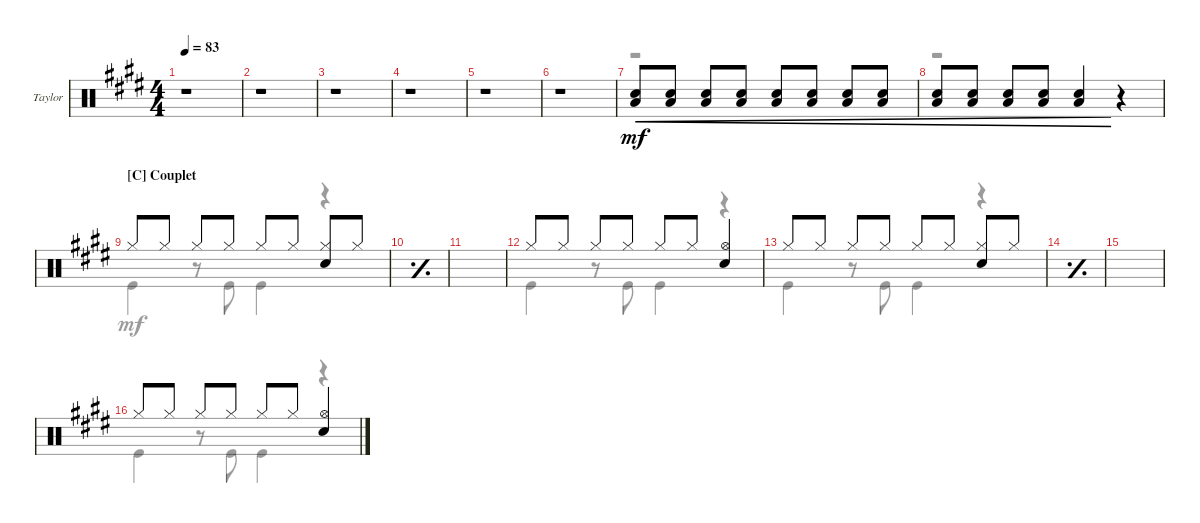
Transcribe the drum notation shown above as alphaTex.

\defaultSystemsLayout 4
\bracketExtendMode groupsimilarinstruments
\firstSystemTrackNameOrientation horizontal
\otherSystemsTrackNameOrientation horizontal
\track ("Drums - Taylor Hawkins" "Taylor") {instrument percussion}
\staff {score}
\articulation defaults
\voice
\ts (4 4)
\tempo 83
\clef neutral
\ks e
r.1{dy mf} |
r.1 |
r.1 |
r.1 |
r.1 |
r.1 |
("Low Tom (hit)" "Snare (hit) 2").8{cre} ("Low Tom (hit)" "Snare (hit) 2").8{cre} ("Low Tom (hit)" "Snare (hit) 2").8{cre} ("Low Tom (hit)" "Snare (hit) 2").8{cre} ("Low Tom (hit)" "Snare (hit) 2").8{cre} ("Low Tom (hit)" "Snare (hit) 2").8{cre} ("Low Tom (hit)" "Snare (hit) 2").8{cre} ("Low Tom (hit)" "Snare (hit) 2").8{cre} |
("Low Tom (hit)" "Snare (hit) 2").8{cre} ("Low Tom (hit)" "Snare (hit) 2").8{cre} ("Low Tom (hit)" "Snare (hit) 2").8{cre} ("Low Tom (hit)" "Snare (hit) 2").8{cre} ("Low Tom (hit)" "Snare (hit) 2").4{cre} r.4 |
\section ("C" "Couplet")
"Hi-Hat (closed)".8 "Hi-Hat (closed)".8 "Hi-Hat (closed)".8 "Hi-Hat (closed)".8 "Hi-Hat (closed)".8 "Hi-Hat (closed)".8 ("Hi-Hat (closed)" "Snare (hit) 2").8 "Hi-Hat (closed)".8 |
\simile simple
|
|
\simile none "Hi-Hat (closed)".8 "Hi-Hat (closed)".8 "Hi-Hat (closed)".8 "Hi-Hat (closed)".8 "Hi-Hat (closed)".8 "Hi-Hat (closed)".8
("Hi-Hat (open)" "Snare (hit) 2").4 |
"Hi-Hat (closed)".8 "Hi-Hat (closed)".8 "Hi-Hat (closed)".8 "Hi-Hat (closed)".8 "Hi-Hat (closed)".8 "Hi-Hat (closed)".8 ("Hi-Hat (closed)" "Snare (hit) 2").8 "Hi-Hat (closed)".8 |
\simile simple
|
|
\simile none "Hi-Hat (closed)".8 "Hi-Hat (closed)".8 "Hi-Hat (closed)".8 "Hi-Hat (closed)".8 "Hi-Hat (closed)".8 "Hi-Hat (closed)".8
("Hi-Hat (open)" "Snare (hit) 2").4
\voice
\clef neutral
\ottava regular
\simile none
\ks e
r.1{dy mf} |
r.1 |
r.1 |
r.1 |
r.1 |
r.1 |
r.1 |
r.1 |
"Kick (hit)".4 r.8 "Kick (hit)".8 "Kick (hit)".4 r.4 |
\simile simple
|
|
\simile none "Kick (hit)".4
r.8 "Kick (hit)".8 "Kick (hit)".4 r.4 |
"Kick (hit)".4 r.8 "Kick (hit)".8 "Kick (hit)".4 r.4 |
\simile simple
|
|
\simile none "Kick (hit)".4
r.8 "Kick (hit)".8 "Kick (hit)".4 r.4
